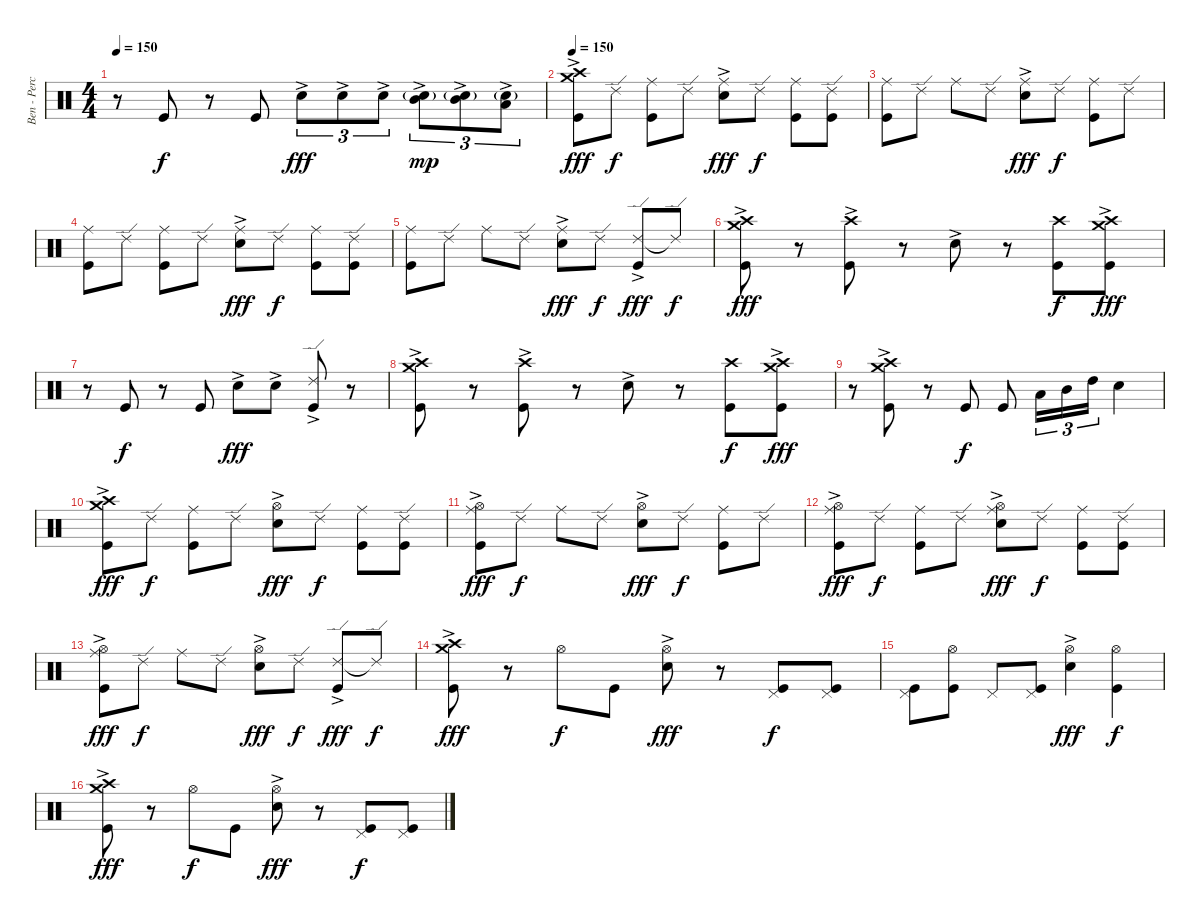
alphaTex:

\track ("Ben - Perception Twin - Drums" "Ben - Perc") {instrument percussion}
\staff {score}
\articulation defaults
\ts (4 4)
\tempo 150
\clef neutral
\ks c
r.8{dy fff} "Kick (hit)".8{dy f} r.8 "Kick (hit)".8 "Electric Snare (hit)"{ac}.8{tu (3 2) dy fff} "Electric Snare (hit)"{ac}.8{tu (3 2)} "Electric Snare (hit)"{ac}.8{tu (3 2)} ("Mid Tom (hit)"{ac} "Electric Snare (hit)"{g}).8{tu (3 2) dy mp} ("Mid Tom (hit)"{ac} "Electric Snare (hit)"{g}).8{tu (3 2)} ("Low Tom (hit)"{ac} "Electric Snare (hit)"{g}).8{tu (3 2)} |
\tempo 150
("Crash medium (hit)"{ac} "Crash high (hit)"{ac} "Kick (hit)").8{dy fff} "Ride (edge) 2".8{dy f} ("Ride (middle)" "Kick (hit)").8 "Ride (edge) 2".8 ("Ride (middle)" "Electric Snare (hit)"{ac}).8{dy fff} "Ride (edge) 2".8{dy f} ("Ride (middle)" "Kick (hit)").8 ("Ride (edge) 2" "Kick (hit)").8 |
("Ride (middle)" "Kick (hit)").8 "Ride (edge) 2".8 "Ride (middle)".8 "Ride (edge) 2".8 ("Ride (middle)" "Electric Snare (hit)"{ac}).8{dy fff} "Ride (edge) 2".8{dy f} ("Ride (middle)" "Kick (hit)").8 "Ride (edge) 2".8 |
("Ride (middle)" "Kick (hit)").8 "Ride (edge) 2".8 ("Ride (middle)" "Kick (hit)").8 "Ride (edge) 2".8 ("Ride (middle)" "Electric Snare (hit)"{ac}).8{dy fff} "Ride (edge) 2".8{dy f} ("Ride (middle)" "Kick (hit)").8 ("Ride (edge) 2" "Kick (hit)").8 |
("Ride (middle)" "Kick (hit)").8 "Ride (edge) 2".8 "Ride (middle)".8 "Ride (edge) 2".8 ("Ride (middle)" "Electric Snare (hit)"{ac}).8{dy fff} "Ride (edge) 2".8{dy f} ("Ride (edge) 2"{ac} "Kick (hit)").8{dy fff} "Ride (edge) 2"{t}.8{dy f} |
("Crash medium (hit)"{ac} "Crash high (hit)"{ac} "Kick (hit)").8{dy fff} r.8 ("Crash high (hit)"{ac} "Kick (hit)").8 r.8 "Electric Snare (hit)"{ac}.8 r.8 ("Crash high (hit)" "Kick (hit)").8{dy f} ("Crash medium (hit)"{ac} "Crash high (hit)"{ac} "Kick (hit)").8{dy fff} |
r.8 "Kick (hit)".8{dy f} r.8 "Kick (hit)".8 "Electric Snare (hit)"{ac}.8{dy fff} "Electric Snare (hit)"{ac}.8 ("Ride (edge) 2"{ac} "Kick (hit)").8 r.8 |
("Crash medium (hit)"{ac} "Crash high (hit)"{ac} "Kick (hit)").8 r.8 ("Crash high (hit)"{ac} "Kick (hit)").8 r.8 "Electric Snare (hit)"{ac}.8 r.8 ("Crash high (hit)" "Kick (hit)").8{dy f} ("Crash medium (hit)"{ac} "Crash high (hit)"{ac} "Kick (hit)").8{dy fff} |
r.8 ("Crash medium (hit)"{ac} "Crash high (hit)"{ac} "Kick (hit)").8 r.8 "Kick (hit)".8{dy f} "Kick (hit)".8 "Low Tom (hit)".16{tu (3 2)} "Mid Tom (hit)".16{tu (3 2)} "High Tom (hit)".16{tu (3 2)} "Electric Snare (hit)".4 |
("Crash medium (hit)"{ac} "Crash high (hit)"{ac} "Kick (hit)").8{dy fff} "Ride (edge) 2".8{dy f} ("Ride (middle)" "Kick (hit)").8 "Ride (edge) 2".8 ("Hi-Hat (open)"{ac} "Electric Snare (hit)"{ac}).8{dy fff} "Ride (edge) 2".8{dy f} ("Ride (middle)" "Kick (hit)").8 ("Ride (edge) 2" "Kick (hit)").8 |
("Hi-Hat (open)"{ac} "Ride (middle)" "Kick (hit)").8{dy fff} "Ride (edge) 2".8{dy f} "Ride (middle)".8 "Ride (edge) 2".8 ("Hi-Hat (open)"{ac} "Electric Snare (hit)"{ac}).8{dy fff} "Ride (edge) 2".8{dy f} ("Ride (middle)" "Kick (hit)").8 "Ride (edge) 2".8 |
("Hi-Hat (open)"{ac} "Ride (middle)" "Kick (hit)").8{dy fff} "Ride (edge) 2".8{dy f} ("Ride (middle)" "Kick (hit)").8 "Ride (edge) 2".8 ("Hi-Hat (open)"{ac} "Ride (middle)" "Electric Snare (hit)"{ac}).8{dy fff} "Ride (edge) 2".8{dy f} ("Ride (middle)" "Kick (hit)").8 ("Ride (edge) 2" "Kick (hit)").8 |
("Hi-Hat (open)"{ac} "Ride (middle)" "Kick (hit)").8{dy fff} "Ride (edge) 2".8{dy f} "Ride (middle)".8 "Ride (edge) 2".8 ("Hi-Hat (open)"{ac} "Electric Snare (hit)"{ac}).8{dy fff} "Ride (edge) 2".8{dy f} ("Ride (edge) 2"{ac} "Kick (hit)").8{dy fff} "Ride (edge) 2"{t}.8{dy f} |
("Crash medium (hit)"{ac} "Crash high (hit)"{ac} "Kick (hit)").8{dy fff} r.8 "Hi-Hat (open)".8{dy f} "Kick (hit)".8 ("Hi-Hat (open)" "Electric Snare (hit)"{ac}).8{dy fff} r.8 ("Pedal Hi-Hat (hit)" "Kick (hit)").8{dy f} ("Pedal Hi-Hat (hit)" "Kick (hit)").8 |
("Pedal Hi-Hat (hit)" "Kick (hit)").8 ("Hi-Hat (open)" "Kick (hit)").8 "Pedal Hi-Hat (hit)".8 ("Pedal Hi-Hat (hit)" "Kick (hit)").8 ("Hi-Hat (open)" "Electric Snare (hit)"{ac}).4{dy fff} ("Hi-Hat (open)" "Kick (hit)").4{dy f} |
("Crash medium (hit)"{ac} "Crash high (hit)"{ac} "Kick (hit)").8{dy fff} r.8 "Hi-Hat (open)".8{dy f} "Kick (hit)".8 ("Hi-Hat (open)" "Electric Snare (hit)"{ac}).8{dy fff} r.8 ("Pedal Hi-Hat (hit)" "Kick (hit)").8{dy f} ("Pedal Hi-Hat (hit)" "Kick (hit)").8
